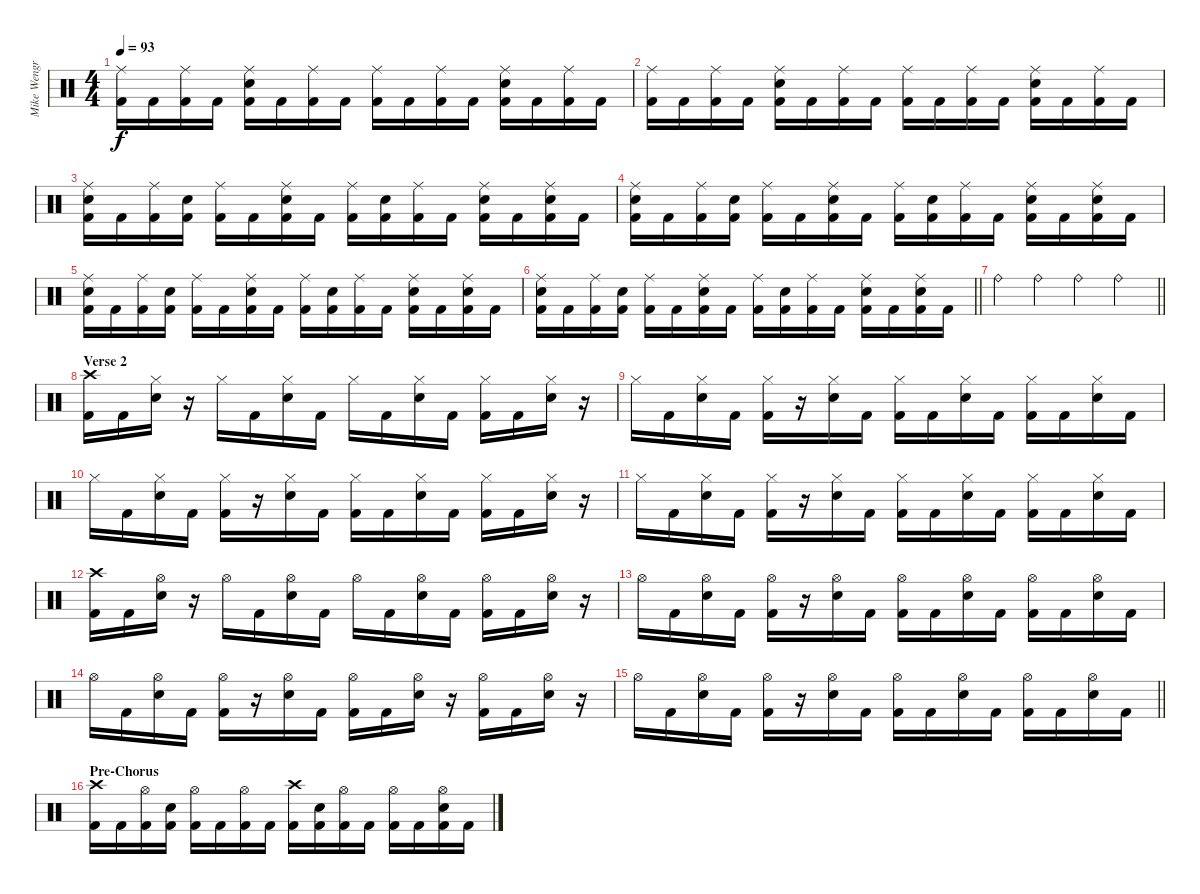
\track ("Mike Wengren" "Mike Wengr") {instrument percussion}
\staff {score}
\articulation defaults
\ts (4 4)
\tempo 93
\clef neutral
\ks c
("Ride (middle)" "Kick (hit) 2").16{dy f} "Kick (hit) 2".16 ("Ride (middle)" "Kick (hit) 2").16 "Kick (hit) 2".16 ("Ride (middle)" "Electric Snare (hit)" "Kick (hit) 2").16 "Kick (hit) 2".16 ("Ride (middle)" "Kick (hit) 2").16 "Kick (hit) 2".16 ("Ride (middle)" "Kick (hit) 2").16 "Kick (hit) 2".16 ("Ride (middle)" "Kick (hit) 2").16 "Kick (hit) 2".16 ("Ride (middle)" "Electric Snare (hit)" "Kick (hit) 2").16 "Kick (hit) 2".16 ("Ride (middle)" "Kick (hit) 2").16 "Kick (hit) 2".16 |
("Ride (middle)" "Kick (hit) 2").16 "Kick (hit) 2".16 ("Ride (middle)" "Kick (hit) 2").16 "Kick (hit) 2".16 ("Ride (middle)" "Electric Snare (hit)" "Kick (hit) 2").16 "Kick (hit) 2".16 ("Ride (middle)" "Kick (hit) 2").16 "Kick (hit) 2".16 ("Ride (middle)" "Kick (hit) 2").16 "Kick (hit) 2".16 ("Ride (middle)" "Kick (hit) 2").16 "Kick (hit) 2".16 ("Ride (middle)" "Electric Snare (hit)" "Kick (hit) 2").16 "Kick (hit) 2".16 ("Ride (middle)" "Kick (hit) 2").16 "Kick (hit) 2".16 |
("Ride (middle)" "Electric Snare (hit)" "Kick (hit) 2").16 "Kick (hit) 2".16 ("Ride (middle)" "Kick (hit) 2").16 ("Electric Snare (hit)" "Kick (hit) 2").16 ("Ride (middle)" "Kick (hit) 2").16 "Kick (hit) 2".16 ("Ride (middle)" "Electric Snare (hit)" "Kick (hit) 2").16 "Kick (hit) 2".16 ("Ride (middle)" "Kick (hit) 2").16 ("Electric Snare (hit)" "Kick (hit) 2").16 ("Ride (middle)" "Kick (hit) 2").16 "Kick (hit) 2".16 ("Ride (middle)" "Electric Snare (hit)" "Kick (hit) 2").16 "Kick (hit) 2".16 ("Ride (middle)" "Electric Snare (hit)" "Kick (hit) 2").16 "Kick (hit) 2".16 |
("Ride (middle)" "Electric Snare (hit)" "Kick (hit) 2").16 "Kick (hit) 2".16 ("Ride (middle)" "Kick (hit) 2").16 ("Electric Snare (hit)" "Kick (hit) 2").16 ("Ride (middle)" "Kick (hit) 2").16 "Kick (hit) 2".16 ("Ride (middle)" "Electric Snare (hit)" "Kick (hit) 2").16 "Kick (hit) 2".16 ("Ride (middle)" "Kick (hit) 2").16 ("Electric Snare (hit)" "Kick (hit) 2").16 ("Ride (middle)" "Kick (hit) 2").16 "Kick (hit) 2".16 ("Ride (middle)" "Electric Snare (hit)" "Kick (hit) 2").16 "Kick (hit) 2".16 ("Ride (middle)" "Electric Snare (hit)" "Kick (hit) 2").16 "Kick (hit) 2".16 |
("Ride (middle)" "Electric Snare (hit)" "Kick (hit) 2").16 "Kick (hit) 2".16 ("Ride (middle)" "Kick (hit) 2").16 ("Electric Snare (hit)" "Kick (hit) 2").16 ("Ride (middle)" "Kick (hit) 2").16 "Kick (hit) 2".16 ("Ride (middle)" "Electric Snare (hit)" "Kick (hit) 2").16 "Kick (hit) 2".16 ("Ride (middle)" "Kick (hit) 2").16 ("Electric Snare (hit)" "Kick (hit) 2").16 ("Ride (middle)" "Kick (hit) 2").16 "Kick (hit) 2".16 ("Ride (middle)" "Electric Snare (hit)" "Kick (hit) 2").16 "Kick (hit) 2".16 ("Ride (middle)" "Electric Snare (hit)" "Kick (hit) 2").16 "Kick (hit) 2".16 |
\barLineRight lightlight
("Ride (middle)" "Electric Snare (hit)" "Kick (hit) 2").16 "Kick (hit) 2".16 ("Ride (middle)" "Kick (hit) 2").16 ("Electric Snare (hit)" "Kick (hit) 2").16 ("Ride (middle)" "Kick (hit) 2").16 "Kick (hit) 2".16 ("Ride (middle)" "Electric Snare (hit)" "Kick (hit) 2").16 "Kick (hit) 2".16 ("Ride (middle)" "Kick (hit) 2").16 ("Electric Snare (hit)" "Kick (hit) 2").16 ("Ride (middle)" "Kick (hit) 2").16 "Kick (hit) 2".16 ("Ride (middle)" "Electric Snare (hit)" "Kick (hit) 2").16 "Kick (hit) 2".16 ("Ride (middle)" "Electric Snare (hit)" "Kick (hit) 2").16 "Kick (hit) 2".16 |
\barLineRight lightlight "Ride (bell)".4 "Ride (bell)".4 "Ride (bell)".4 "Ride (bell)".4
|
\section ("" "Verse 2")
("Crash high (hit)" "Kick (hit) 2").16 "Kick (hit) 2".16 ("Hi-Hat (closed)" "Electric Snare (hit)").16 r.16 "Hi-Hat (closed)".16 "Kick (hit) 2".16 ("Hi-Hat (closed)" "Electric Snare (hit)").16 "Kick (hit) 2".16 "Hi-Hat (closed)".16 "Kick (hit) 2".16 ("Hi-Hat (closed)" "Electric Snare (hit)").16 "Kick (hit) 2".16 ("Hi-Hat (closed)" "Kick (hit) 2").16 "Kick (hit) 2".16 ("Hi-Hat (closed)" "Electric Snare (hit)").16 r.16 |
"Hi-Hat (closed)".16 "Kick (hit) 2".16 ("Hi-Hat (closed)" "Electric Snare (hit)").16 "Kick (hit) 2".16 ("Hi-Hat (closed)" "Kick (hit) 2").16 r.16 ("Hi-Hat (closed)" "Electric Snare (hit)").16 "Kick (hit) 2".16 ("Hi-Hat (closed)" "Kick (hit) 2").16 "Kick (hit) 2".16 ("Hi-Hat (closed)" "Electric Snare (hit)").16 "Kick (hit) 2".16 ("Hi-Hat (closed)" "Kick (hit) 2").16 "Kick (hit) 2".16 ("Hi-Hat (closed)" "Electric Snare (hit)").16 "Kick (hit) 2".16 |
"Hi-Hat (closed)".16 "Kick (hit) 2".16 ("Hi-Hat (closed)" "Electric Snare (hit)").16 "Kick (hit) 2".16 ("Hi-Hat (closed)" "Kick (hit) 2").16 r.16 ("Hi-Hat (closed)" "Electric Snare (hit)").16 "Kick (hit) 2".16 ("Hi-Hat (closed)" "Kick (hit) 2").16 "Kick (hit) 2".16 ("Hi-Hat (closed)" "Electric Snare (hit)").16 "Kick (hit) 2".16 ("Hi-Hat (closed)" "Kick (hit) 2").16 "Kick (hit) 2".16 ("Hi-Hat (closed)" "Electric Snare (hit)").16 r.16 |
"Hi-Hat (closed)".16 "Kick (hit) 2".16 ("Hi-Hat (closed)" "Electric Snare (hit)").16 "Kick (hit) 2".16 ("Hi-Hat (closed)" "Kick (hit) 2").16 r.16 ("Hi-Hat (closed)" "Electric Snare (hit)").16 "Kick (hit) 2".16 ("Hi-Hat (closed)" "Kick (hit) 2").16 "Kick (hit) 2".16 ("Hi-Hat (closed)" "Electric Snare (hit)").16 "Kick (hit) 2".16 ("Hi-Hat (closed)" "Kick (hit) 2").16 "Kick (hit) 2".16 ("Hi-Hat (closed)" "Electric Snare (hit)").16 "Kick (hit) 2".16 |
("Crash high (hit)" "Kick (hit) 2").16 "Kick (hit) 2".16 ("Hi-Hat (open)" "Electric Snare (hit)").16 r.16 "Hi-Hat (open)".16 "Kick (hit) 2".16 ("Hi-Hat (open)" "Electric Snare (hit)").16 "Kick (hit) 2".16 "Hi-Hat (open)".16 "Kick (hit) 2".16 ("Hi-Hat (open)" "Electric Snare (hit)").16 "Kick (hit) 2".16 ("Hi-Hat (open)" "Kick (hit) 2").16 "Kick (hit) 2".16 ("Hi-Hat (open)" "Electric Snare (hit)").16 r.16 |
"Hi-Hat (open)".16 "Kick (hit) 2".16 ("Hi-Hat (open)" "Electric Snare (hit)").16 "Kick (hit) 2".16 ("Hi-Hat (open)" "Kick (hit) 2").16 r.16 ("Hi-Hat (open)" "Electric Snare (hit)").16 "Kick (hit) 2".16 ("Hi-Hat (open)" "Kick (hit) 2").16 "Kick (hit) 2".16 ("Hi-Hat (open)" "Electric Snare (hit)").16 "Kick (hit) 2".16 ("Hi-Hat (open)" "Kick (hit) 2").16 "Kick (hit) 2".16 ("Hi-Hat (open)" "Electric Snare (hit)").16 "Kick (hit) 2".16 |
"Hi-Hat (open)".16 "Kick (hit) 2".16 ("Hi-Hat (open)" "Electric Snare (hit)").16 "Kick (hit) 2".16 ("Hi-Hat (open)" "Kick (hit) 2").16 r.16 ("Hi-Hat (open)" "Electric Snare (hit)").16 "Kick (hit) 2".16 ("Hi-Hat (open)" "Kick (hit) 2").16 "Kick (hit) 2".16 ("Hi-Hat (open)" "Electric Snare (hit)").16 r.16 ("Hi-Hat (open)" "Kick (hit) 2").16 "Kick (hit) 2".16 ("Hi-Hat (open)" "Electric Snare (hit)").16 r.16 |
\barLineRight lightlight "Hi-Hat (open)".16 "Kick (hit) 2".16
("Hi-Hat (open)" "Electric Snare (hit)").16 "Kick (hit) 2".16 ("Hi-Hat (open)" "Kick (hit) 2").16 r.16 ("Hi-Hat (open)" "Electric Snare (hit)").16 "Kick (hit) 2".16 ("Hi-Hat (open)" "Kick (hit) 2").16 "Kick (hit) 2".16 ("Hi-Hat (open)" "Electric Snare (hit)").16 "Kick (hit) 2".16 ("Hi-Hat (open)" "Kick (hit) 2").16 "Kick (hit) 2".16 ("Hi-Hat (open)" "Electric Snare (hit)").16 "Kick (hit) 2".16 |
\section ("" "Pre-Chorus")
("Crash high (hit)" "Kick (hit) 2").16 "Kick (hit) 2".16 ("Hi-Hat (open)" "Kick (hit) 2").16 ("Electric Snare (hit)" "Kick (hit) 2").16 ("Hi-Hat (open)" "Kick (hit) 2").16 "Kick (hit) 2".16 ("Hi-Hat (open)" "Kick (hit) 2").16 "Kick (hit) 2".16 ("Crash high (hit)" "Kick (hit) 2").16 ("Electric Snare (hit)" "Kick (hit) 2").16 ("Hi-Hat (open)" "Kick (hit) 2").16 "Kick (hit) 2".16 ("Hi-Hat (open)" "Kick (hit) 2").16 "Kick (hit) 2".16 ("Hi-Hat (open)" "Electric Snare (hit)" "Kick (hit) 2").16 "Kick (hit) 2".16
